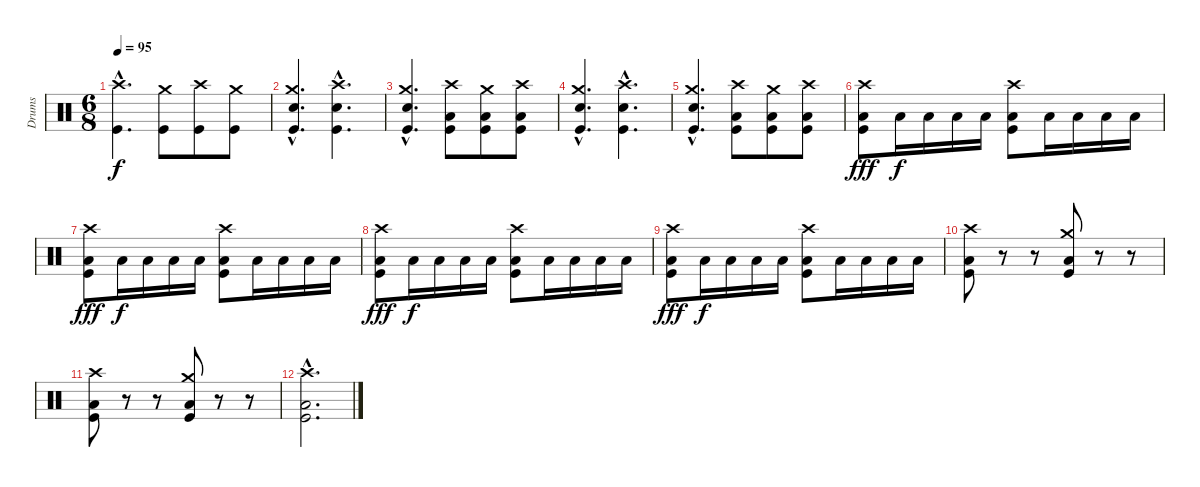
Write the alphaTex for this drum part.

\track ("Drums" "Drums") {instrument percussion}
\staff {score}
\articulation defaults
\ts (6 8)
\tempo 95
\clef neutral
\ks c
("Crash high (hit)"{hac} "Kick (hit)"{hac}).4{d dy f} ("Crash medium (hit)" "Kick (hit)").8 ("Crash high (hit)" "Kick (hit)").8 ("Crash medium (hit)" "Kick (hit)").8 |
("Crash medium (hit)"{hac} "Snare (hit) 2"{hac} "Kick (hit)"{hac}).4{d} ("Crash high (hit)"{hac} "Snare (hit) 2"{hac} "Kick (hit)"{hac}).4{d} |
("Crash medium (hit)"{hac} "Snare (hit) 2"{hac} "Kick (hit)"{hac}).4{d} ("Crash high (hit)" "Low Tom (hit)" "Kick (hit)").8 ("Crash medium (hit)" "Low Tom (hit)" "Kick (hit)").8 ("Crash high (hit)" "Low Tom (hit)" "Kick (hit)").8 |
("Crash medium (hit)"{hac} "Snare (hit) 2"{hac} "Kick (hit)"{hac}).4{d} ("Crash high (hit)"{hac} "Snare (hit) 2"{hac} "Kick (hit)"{hac}).4{d} |
("Crash medium (hit)"{hac} "Snare (hit) 2"{hac} "Kick (hit)"{hac}).4{d} ("Crash high (hit)" "Low Tom (hit)" "Kick (hit)").8 ("Crash medium (hit)" "Low Tom (hit)" "Kick (hit)").8 ("Crash high (hit)" "Low Tom (hit)" "Kick (hit)").8 |
("Crash high (hit)" "Low Tom (hit)" "Kick (hit)").8{dy fff} "Low Tom (hit)".16{dy f} "Low Tom (hit)".16 "Low Tom (hit)".16 "Low Tom (hit)".16 ("Crash high (hit)" "Low Tom (hit)" "Kick (hit)").8 "Low Tom (hit)".16 "Low Tom (hit)".16 "Low Tom (hit)".16 "Low Tom (hit)".16 |
("Crash high (hit)" "Low Tom (hit)" "Kick (hit)").8{dy fff} "Low Tom (hit)".16{dy f} "Low Tom (hit)".16 "Low Tom (hit)".16 "Low Tom (hit)".16 ("Crash high (hit)" "Low Tom (hit)" "Kick (hit)").8 "Low Tom (hit)".16 "Low Tom (hit)".16 "Low Tom (hit)".16 "Low Tom (hit)".16 |
("Crash high (hit)" "Low Tom (hit)" "Kick (hit)").8{dy fff} "Low Tom (hit)".16{dy f} "Low Tom (hit)".16 "Low Tom (hit)".16 "Low Tom (hit)".16 ("Crash high (hit)" "Low Tom (hit)" "Kick (hit)").8 "Low Tom (hit)".16 "Low Tom (hit)".16 "Low Tom (hit)".16 "Low Tom (hit)".16 |
("Crash high (hit)" "Low Tom (hit)" "Kick (hit)").8{dy fff} "Low Tom (hit)".16{dy f} "Low Tom (hit)".16 "Low Tom (hit)".16 "Low Tom (hit)".16 ("Crash high (hit)" "Low Tom (hit)" "Kick (hit)").8 "Low Tom (hit)".16 "Low Tom (hit)".16 "Low Tom (hit)".16 "Low Tom (hit)".16 |
("Crash high (hit)" "Low Tom (hit)" "Kick (hit)").8 r.8 r.8 ("Crash medium (hit)" "Low Tom (hit)" "Kick (hit)").8 r.8 r.8 |
("Crash high (hit)" "Low Tom (hit)" "Kick (hit)").8 r.8 r.8 ("Crash medium (hit)" "Low Tom (hit)" "Kick (hit)").8 r.8 r.8 |
("Crash high (hit)"{hac} "Low Tom (hit)"{hac} "Kick (hit)"{hac}).2{d}
